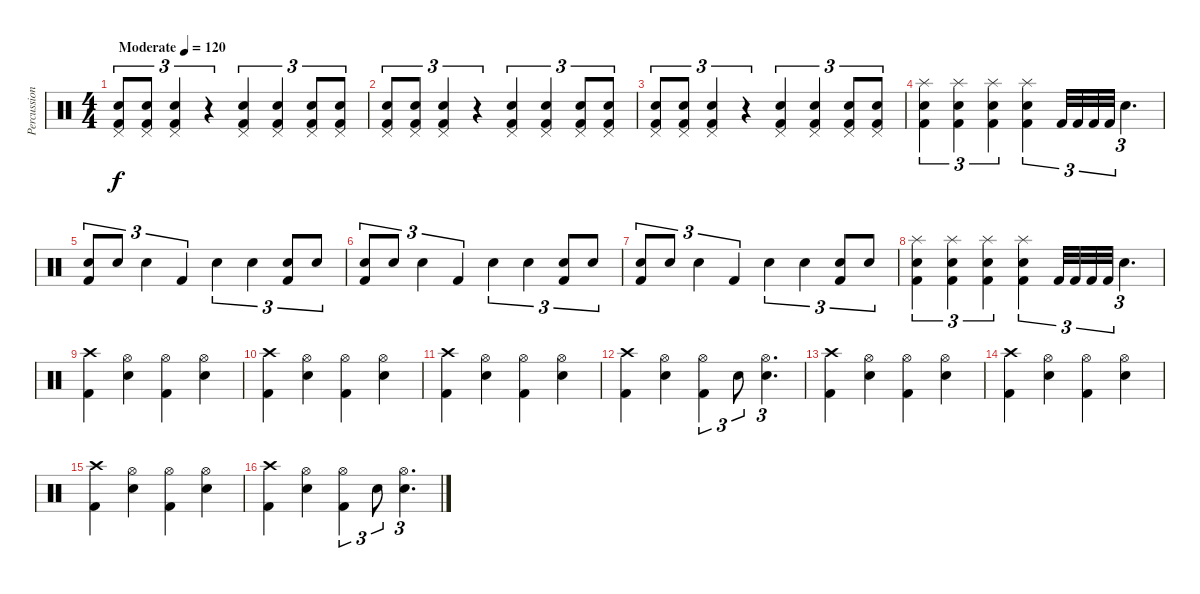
\track ("Percussion" "Percussion") {instrument percussion}
\staff {score}
\articulation defaults
\ts (4 4)
\tempo (120 "Moderate")
\clef neutral
\ks c
("Kick (hit) 2" "Snare (hit) 2" "Pedal Hi-Hat (hit)").8{tu (3 2) dy f} ("Kick (hit) 2" "Snare (hit) 2" "Pedal Hi-Hat (hit)").8{tu (3 2)} ("Kick (hit) 2" "Snare (hit) 2" "Pedal Hi-Hat (hit)").4{tu (3 2)} r.4{tu (3 2)} ("Kick (hit) 2" "Snare (hit) 2" "Pedal Hi-Hat (hit)").4{tu (3 2)} ("Kick (hit) 2" "Snare (hit) 2" "Pedal Hi-Hat (hit)").4{tu (3 2)} ("Kick (hit) 2" "Snare (hit) 2" "Pedal Hi-Hat (hit)").8{tu (3 2)} ("Kick (hit) 2" "Snare (hit) 2" "Pedal Hi-Hat (hit)").8{tu (3 2)} |
("Kick (hit) 2" "Snare (hit) 2" "Pedal Hi-Hat (hit)").8{tu (3 2)} ("Kick (hit) 2" "Snare (hit) 2" "Pedal Hi-Hat (hit)").8{tu (3 2)} ("Kick (hit) 2" "Snare (hit) 2" "Pedal Hi-Hat (hit)").4{tu (3 2)} r.4{tu (3 2)} ("Kick (hit) 2" "Snare (hit) 2" "Pedal Hi-Hat (hit)").4{tu (3 2)} ("Kick (hit) 2" "Snare (hit) 2" "Pedal Hi-Hat (hit)").4{tu (3 2)} ("Kick (hit) 2" "Snare (hit) 2" "Pedal Hi-Hat (hit)").8{tu (3 2)} ("Kick (hit) 2" "Snare (hit) 2" "Pedal Hi-Hat (hit)").8{tu (3 2)} |
("Kick (hit) 2" "Snare (hit) 2" "Pedal Hi-Hat (hit)").8{tu (3 2)} ("Kick (hit) 2" "Snare (hit) 2" "Pedal Hi-Hat (hit)").8{tu (3 2)} ("Kick (hit) 2" "Snare (hit) 2" "Pedal Hi-Hat (hit)").4{tu (3 2)} r.4{tu (3 2)} ("Kick (hit) 2" "Snare (hit) 2" "Pedal Hi-Hat (hit)").4{tu (3 2)} ("Kick (hit) 2" "Snare (hit) 2" "Pedal Hi-Hat (hit)").4{tu (3 2)} ("Kick (hit) 2" "Snare (hit) 2" "Pedal Hi-Hat (hit)").8{tu (3 2)} ("Kick (hit) 2" "Snare (hit) 2" "Pedal Hi-Hat (hit)").8{tu (3 2)} |
("Kick (hit) 2" "Snare (hit) 2" "Splash (hit)").4{tu (3 2)} ("Kick (hit) 2" "Snare (hit) 2" "Splash (hit)").4{tu (3 2)} ("Kick (hit) 2" "Snare (hit) 2" "Splash (hit)").4{tu (3 2)} ("Kick (hit) 2" "Snare (hit) 2" "Splash (hit)").4{tu (3 2)} "Kick (hit) 2".32{tu (3 2)} "Kick (hit) 2".32{tu (3 2)} "Kick (hit) 2".32{tu (3 2)} "Kick (hit) 2".32{tu (3 2)} "Snare (hit) 2".4{d tu (3 2)} |
("Kick (hit) 2" "Snare (hit) 2").8{tu (3 2)} "Snare (hit) 2".8{tu (3 2)} "Snare (hit) 2".4{tu (3 2)} "Kick (hit) 2".4{tu (3 2)} "Snare (hit) 2".4{tu (3 2)} "Snare (hit) 2".4{tu (3 2)} ("Kick (hit) 2" "Snare (hit) 2").8{tu (3 2)} "Snare (hit) 2".8{tu (3 2)} |
("Kick (hit) 2" "Snare (hit) 2").8{tu (3 2)} "Snare (hit) 2".8{tu (3 2)} "Snare (hit) 2".4{tu (3 2)} "Kick (hit) 2".4{tu (3 2)} "Snare (hit) 2".4{tu (3 2)} "Snare (hit) 2".4{tu (3 2)} ("Kick (hit) 2" "Snare (hit) 2").8{tu (3 2)} "Snare (hit) 2".8{tu (3 2)} |
("Kick (hit) 2" "Snare (hit) 2").8{tu (3 2)} "Snare (hit) 2".8{tu (3 2)} "Snare (hit) 2".4{tu (3 2)} "Kick (hit) 2".4{tu (3 2)} "Snare (hit) 2".4{tu (3 2)} "Snare (hit) 2".4{tu (3 2)} ("Kick (hit) 2" "Snare (hit) 2").8{tu (3 2)} "Snare (hit) 2".8{tu (3 2)} |
("Kick (hit) 2" "Snare (hit) 2" "Splash (hit)").4{tu (3 2)} ("Kick (hit) 2" "Snare (hit) 2" "Splash (hit)").4{tu (3 2)} ("Kick (hit) 2" "Snare (hit) 2" "Splash (hit)").4{tu (3 2)} ("Kick (hit) 2" "Snare (hit) 2" "Splash (hit)").4{tu (3 2)} "Kick (hit) 2".32{tu (3 2)} "Kick (hit) 2".32{tu (3 2)} "Kick (hit) 2".32{tu (3 2)} "Kick (hit) 2".32{tu (3 2)} "Snare (hit) 2".4{d tu (3 2)} |
("Kick (hit) 2" "Crash high (hit)").4 ("Snare (hit) 2" "Hi-Hat (open)").4 ("Kick (hit) 2" "Hi-Hat (open)").4 ("Snare (hit) 2" "Hi-Hat (open)").4 |
("Kick (hit) 2" "Crash high (hit)").4 ("Snare (hit) 2" "Hi-Hat (open)").4 ("Kick (hit) 2" "Hi-Hat (open)").4 ("Snare (hit) 2" "Hi-Hat (open)").4 |
("Kick (hit) 2" "Crash high (hit)").4 ("Snare (hit) 2" "Hi-Hat (open)").4 ("Kick (hit) 2" "Hi-Hat (open)").4 ("Snare (hit) 2" "Hi-Hat (open)").4 |
("Kick (hit) 2" "Crash high (hit)").4 ("Snare (hit) 2" "Hi-Hat (open)").4 ("Kick (hit) 2" "Hi-Hat (open)").4{tu (3 2)} "Snare (hit) 2".8{tu (3 2)} ("Snare (hit) 2" "Hi-Hat (open)").4{d tu (3 2)} |
("Kick (hit) 2" "Crash high (hit)").4 ("Snare (hit) 2" "Hi-Hat (open)").4 ("Kick (hit) 2" "Hi-Hat (open)").4 ("Snare (hit) 2" "Hi-Hat (open)").4 |
("Kick (hit) 2" "Crash high (hit)").4 ("Snare (hit) 2" "Hi-Hat (open)").4 ("Kick (hit) 2" "Hi-Hat (open)").4 ("Snare (hit) 2" "Hi-Hat (open)").4 |
("Kick (hit) 2" "Crash high (hit)").4 ("Snare (hit) 2" "Hi-Hat (open)").4 ("Kick (hit) 2" "Hi-Hat (open)").4 ("Snare (hit) 2" "Hi-Hat (open)").4 |
("Kick (hit) 2" "Crash high (hit)").4 ("Snare (hit) 2" "Hi-Hat (open)").4 ("Kick (hit) 2" "Hi-Hat (open)").4{tu (3 2)} "Snare (hit) 2".8{tu (3 2)} ("Snare (hit) 2" "Hi-Hat (open)").4{d tu (3 2)}
